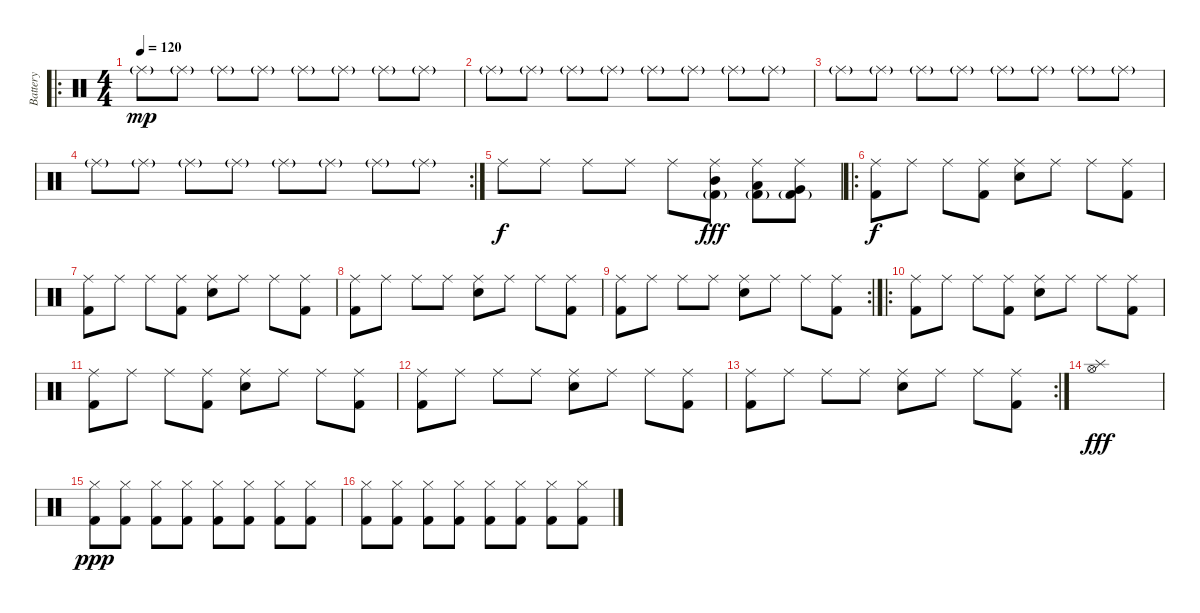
\track ("Battery" "Battery") {instrument percussion}
\staff {score}
\articulation defaults
\ro
\ts (4 4)
\tempo 120
\clef neutral
\ks c "Ride (middle)"{g}.8{dy mp} "Ride (middle)"{g}.8 "Ride (middle)"{g}.8 "Ride (middle)"{g}.8 "Ride (middle)"{g}.8 "Ride (middle)"{g}.8 "Ride (middle)"{g}.8 "Ride (middle)"{g}.8
|
"Ride (middle)"{g}.8 "Ride (middle)"{g}.8 "Ride (middle)"{g}.8 "Ride (middle)"{g}.8 "Ride (middle)"{g}.8 "Ride (middle)"{g}.8 "Ride (middle)"{g}.8 "Ride (middle)"{g}.8 |
"Ride (middle)"{g}.8 "Ride (middle)"{g}.8 "Ride (middle)"{g}.8 "Ride (middle)"{g}.8 "Ride (middle)"{g}.8 "Ride (middle)"{g}.8 "Ride (middle)"{g}.8 "Ride (middle)"{g}.8 |
\rc 2 "Ride (middle)"{g}.8 "Ride (middle)"{g}.8 "Ride (middle)"{g}.8 "Ride (middle)"{g}.8 "Ride (middle)"{g}.8 "Ride (middle)"{g}.8 "Ride (middle)"{g}.8 "Ride (middle)"{g}.8
|
"Ride (middle)".8{dy f} "Ride (middle)".8 "Ride (middle)".8 "Ride (middle)".8 "Ride (middle)".8 ("Ride (middle)" "Kick (hit) 2"{g} "Mid Tom (hit)").8{dy fff} ("Ride (middle)" "Kick (hit) 2"{g} "Low Tom (hit)").8 ("Ride (middle)" "Kick (hit) 2"{g} "Very Low Tom (hit)").8 |
\ro
("Ride (middle)" "Kick (hit) 2").8{dy f} "Ride (middle)".8 "Ride (middle)".8 ("Ride (middle)" "Kick (hit) 2").8 ("Ride (middle)" "Snare (hit) 2").8 "Ride (middle)".8 "Ride (middle)".8 ("Ride (middle)" "Kick (hit) 2").8 |
("Ride (middle)" "Kick (hit) 2").8 "Ride (middle)".8 "Ride (middle)".8 ("Ride (middle)" "Kick (hit) 2").8 ("Ride (middle)" "Snare (hit) 2").8 "Ride (middle)".8 "Ride (middle)".8 ("Ride (middle)" "Kick (hit) 2").8 |
("Ride (middle)" "Kick (hit) 2").8 "Ride (middle)".8 "Ride (middle)".8 "Ride (middle)".8 ("Ride (middle)" "Snare (hit) 2").8 "Ride (middle)".8 "Ride (middle)".8 ("Ride (middle)" "Kick (hit) 2").8 |
\rc 2
("Ride (middle)" "Kick (hit) 2").8 "Ride (middle)".8 "Ride (middle)".8 "Ride (middle)".8 ("Ride (middle)" "Snare (hit) 2").8 "Ride (middle)".8 "Ride (middle)".8 ("Ride (middle)" "Kick (hit) 2").8 |
\ro
("Ride (middle)" "Kick (hit) 2").8 "Ride (middle)".8 "Ride (middle)".8 ("Ride (middle)" "Kick (hit) 2").8 ("Ride (middle)" "Snare (hit) 2").8 "Ride (middle)".8 "Ride (middle)".8 ("Ride (middle)" "Kick (hit) 2").8 |
("Ride (middle)" "Kick (hit) 2").8 "Ride (middle)".8 "Ride (middle)".8 ("Ride (middle)" "Kick (hit) 2").8 ("Ride (middle)" "Snare (hit) 2").8 "Ride (middle)".8 "Ride (middle)".8 ("Ride (middle)" "Kick (hit) 2").8 |
("Ride (middle)" "Kick (hit) 2").8 "Ride (middle)".8 "Ride (middle)".8 "Ride (middle)".8 ("Ride (middle)" "Snare (hit) 2").8 "Ride (middle)".8 "Ride (middle)".8 ("Ride (middle)" "Kick (hit) 2").8 |
\rc 2
("Ride (middle)" "Kick (hit) 2").8 "Ride (middle)".8 "Ride (middle)".8 "Ride (middle)".8 ("Ride (middle)" "Snare (hit) 2").8 "Ride (middle)".8 "Ride (middle)".8 ("Ride (middle)" "Kick (hit) 2").8 |
("Hi-Hat (open)" "Splash (hit)").1{dy fff} |
("Hi-Hat (closed)" "Kick (hit) 2").8{dy ppp} ("Hi-Hat (closed)" "Kick (hit) 2").8 ("Hi-Hat (closed)" "Kick (hit) 2").8 ("Hi-Hat (closed)" "Kick (hit) 2").8 ("Hi-Hat (closed)" "Kick (hit) 2").8 ("Hi-Hat (closed)" "Kick (hit) 2").8 ("Hi-Hat (closed)" "Kick (hit) 2").8 ("Hi-Hat (closed)" "Kick (hit) 2").8 |
("Hi-Hat (closed)" "Kick (hit) 2").8 ("Hi-Hat (closed)" "Kick (hit) 2").8 ("Hi-Hat (closed)" "Kick (hit) 2").8 ("Hi-Hat (closed)" "Kick (hit) 2").8 ("Hi-Hat (closed)" "Kick (hit) 2").8 ("Hi-Hat (closed)" "Kick (hit) 2").8 ("Hi-Hat (closed)" "Kick (hit) 2").8 ("Hi-Hat (closed)" "Kick (hit) 2").8
